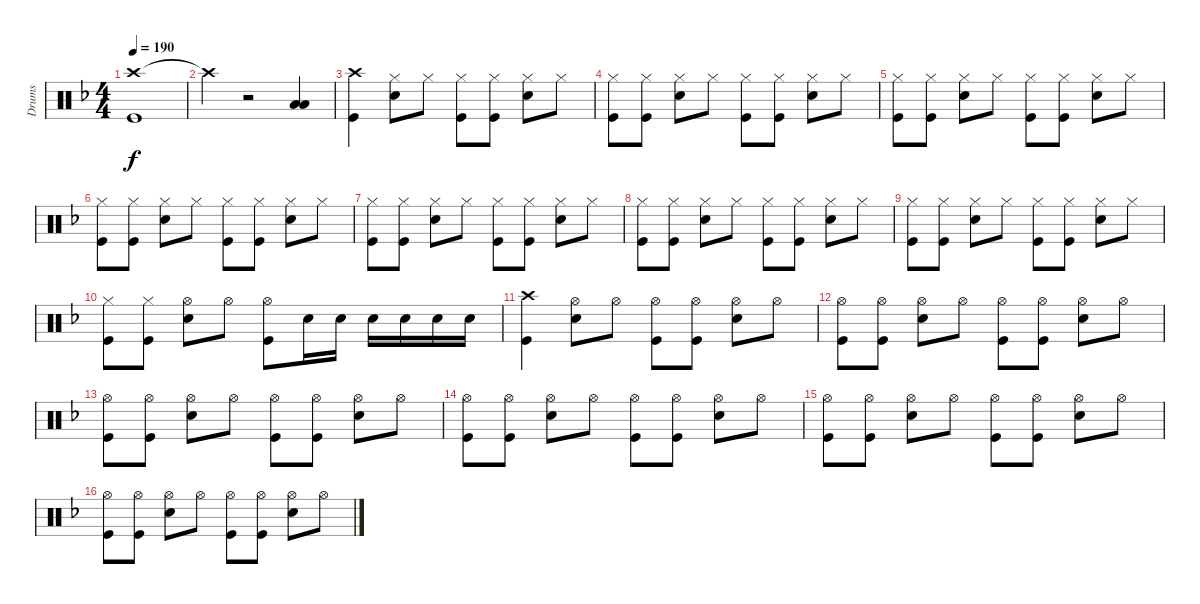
\track ("Drums" "Drums") {instrument percussion}
\staff {score}
\articulation defaults
\ts (4 4)
\tempo 190
\clef neutral
\ks f
("Crash high (hit)" "Kick (hit)").1{dy f} |
"Crash high (hit)"{t}.4 r.2 ("Low Tom (hit)" "Low Floor Tom (hit)").4 |
("Kick (hit)" "Crash high (hit)").4 ("Hi-Hat (closed)" "Snare (hit) 2").8 "Hi-Hat (closed)".8 ("Hi-Hat (closed)" "Kick (hit)").8 ("Hi-Hat (closed)" "Kick (hit)").8 ("Hi-Hat (closed)" "Snare (hit) 2").8 "Hi-Hat (closed)".8 |
("Kick (hit)" "Hi-Hat (closed)").8 ("Hi-Hat (closed)" "Kick (hit)").8 ("Hi-Hat (closed)" "Snare (hit) 2").8 "Hi-Hat (closed)".8 ("Hi-Hat (closed)" "Kick (hit)").8 ("Hi-Hat (closed)" "Kick (hit)").8 ("Hi-Hat (closed)" "Snare (hit) 2").8 "Hi-Hat (closed)".8 |
("Kick (hit)" "Hi-Hat (closed)").8 ("Hi-Hat (closed)" "Kick (hit)").8 ("Hi-Hat (closed)" "Snare (hit) 2").8 "Hi-Hat (closed)".8 ("Hi-Hat (closed)" "Kick (hit)").8 ("Hi-Hat (closed)" "Kick (hit)").8 ("Hi-Hat (closed)" "Snare (hit) 2").8 "Hi-Hat (closed)".8 |
("Kick (hit)" "Hi-Hat (closed)").8 ("Hi-Hat (closed)" "Kick (hit)").8 ("Hi-Hat (closed)" "Snare (hit) 2").8 "Hi-Hat (closed)".8 ("Hi-Hat (closed)" "Kick (hit)").8 ("Hi-Hat (closed)" "Kick (hit)").8 ("Hi-Hat (closed)" "Snare (hit) 2").8 "Hi-Hat (closed)".8 |
("Kick (hit)" "Hi-Hat (closed)").8 ("Hi-Hat (closed)" "Kick (hit)").8 ("Hi-Hat (closed)" "Snare (hit) 2").8 "Hi-Hat (closed)".8 ("Hi-Hat (closed)" "Kick (hit)").8 ("Hi-Hat (closed)" "Kick (hit)").8 ("Hi-Hat (closed)" "Snare (hit) 2").8 "Hi-Hat (closed)".8 |
("Kick (hit)" "Hi-Hat (closed)").8 ("Hi-Hat (closed)" "Kick (hit)").8 ("Hi-Hat (closed)" "Snare (hit) 2").8 "Hi-Hat (closed)".8 ("Hi-Hat (closed)" "Kick (hit)").8 ("Hi-Hat (closed)" "Kick (hit)").8 ("Hi-Hat (closed)" "Snare (hit) 2").8 "Hi-Hat (closed)".8 |
("Kick (hit)" "Hi-Hat (closed)").8 ("Hi-Hat (closed)" "Kick (hit)").8 ("Hi-Hat (closed)" "Snare (hit) 2").8 "Hi-Hat (closed)".8 ("Hi-Hat (closed)" "Kick (hit)").8 ("Hi-Hat (closed)" "Kick (hit)").8 ("Hi-Hat (closed)" "Snare (hit) 2").8 "Hi-Hat (closed)".8 |
("Kick (hit)" "Hi-Hat (closed)").8 ("Hi-Hat (closed)" "Kick (hit)").8 ("Hi-Hat (open)" "Snare (hit) 2").8 "Hi-Hat (open)".8 ("Kick (hit)" "Hi-Hat (open)").8 "Snare (hit) 2".16 "Snare (hit) 2".16 "Snare (hit) 2".16 "Snare (hit) 2".16 "Snare (hit) 2".16 "Snare (hit) 2".16 |
("Kick (hit)" "Crash high (hit)").4 ("Snare (hit) 2" "Hi-Hat (open)").8 "Hi-Hat (open)".8 ("Hi-Hat (open)" "Kick (hit)").8 ("Hi-Hat (open)" "Kick (hit)").8 ("Hi-Hat (open)" "Snare (hit) 2").8 "Hi-Hat (open)".8 |
("Kick (hit)" "Hi-Hat (open)").8 ("Hi-Hat (open)" "Kick (hit)").8 ("Snare (hit) 2" "Hi-Hat (open)").8 "Hi-Hat (open)".8 ("Hi-Hat (open)" "Kick (hit)").8 ("Hi-Hat (open)" "Kick (hit)").8 ("Hi-Hat (open)" "Snare (hit) 2").8 "Hi-Hat (open)".8 |
("Kick (hit)" "Hi-Hat (open)").8 ("Hi-Hat (open)" "Kick (hit)").8 ("Snare (hit) 2" "Hi-Hat (open)").8 "Hi-Hat (open)".8 ("Hi-Hat (open)" "Kick (hit)").8 ("Hi-Hat (open)" "Kick (hit)").8 ("Hi-Hat (open)" "Snare (hit) 2").8 "Hi-Hat (open)".8 |
("Kick (hit)" "Hi-Hat (open)").8 ("Hi-Hat (open)" "Kick (hit)").8 ("Snare (hit) 2" "Hi-Hat (open)").8 "Hi-Hat (open)".8 ("Hi-Hat (open)" "Kick (hit)").8 ("Hi-Hat (open)" "Kick (hit)").8 ("Hi-Hat (open)" "Snare (hit) 2").8 "Hi-Hat (open)".8 |
("Kick (hit)" "Hi-Hat (open)").8 ("Hi-Hat (open)" "Kick (hit)").8 ("Snare (hit) 2" "Hi-Hat (open)").8 "Hi-Hat (open)".8 ("Hi-Hat (open)" "Kick (hit)").8 ("Hi-Hat (open)" "Kick (hit)").8 ("Hi-Hat (open)" "Snare (hit) 2").8 "Hi-Hat (open)".8 |
("Kick (hit)" "Hi-Hat (open)").8 ("Hi-Hat (open)" "Kick (hit)").8 ("Snare (hit) 2" "Hi-Hat (open)").8 "Hi-Hat (open)".8 ("Hi-Hat (open)" "Kick (hit)").8 ("Hi-Hat (open)" "Kick (hit)").8 ("Hi-Hat (open)" "Snare (hit) 2").8 "Hi-Hat (open)".8
